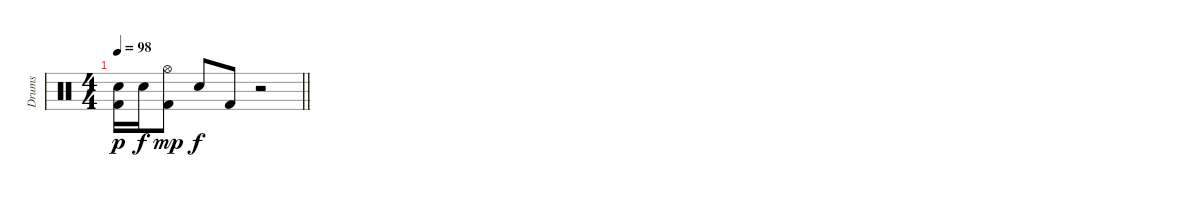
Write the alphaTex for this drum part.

\track ("Drums" "Drums") {instrument percussion}
\staff {score}
\articulation defaults
\ts (4 4)
\tempo 98
\clef neutral
\barLineRight lightlight
\ks c
("Electric Snare (hit)" "Kick (hit) 2").16{dy p} "Snare (hit) 2".16{dy f} ("Hi-Hat (open)" "Kick (hit) 2").8{dy mp} "Snare (hit) 2".8{dy f} "Kick (hit) 2".8 r.2
